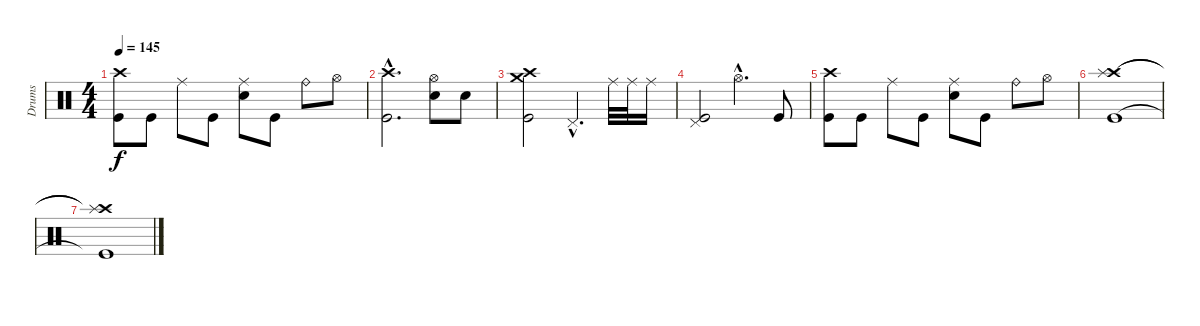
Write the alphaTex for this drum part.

\track ("Drums" "Drums") {instrument percussion}
\staff {score}
\articulation defaults
\ts (4 4)
\tempo 145
\clef neutral
\ks c
("Crash high (hit)" "Kick (hit)").8{dy f} "Kick (hit)".8 "Ride (middle)".8 "Kick (hit)".8 ("Ride (middle)" "Electric Snare (hit)").8 "Kick (hit)".8 "Ride (bell)".8 "Hi-Hat (open)".8 |
("Crash high (hit)"{hac} "Kick (hit)"{hac}).2{d} ("Hi-Hat (open)" "Electric Snare (hit)").8 "Electric Snare (hit)".8 |
("Crash high (hit)" "Crash medium (hit)" "Kick (hit)").2 "Pedal Hi-Hat (hit)"{hac}.4{d} "Ride (middle)".32 "Ride (middle)".32 "Ride (middle)".16 |
("Pedal Hi-Hat (hit)" "Kick (hit)").2 "Hi-Hat (open)"{hac}.4{d} "Kick (hit)".8 |
("Crash high (hit)" "Kick (hit)").8 "Kick (hit)".8 "Ride (middle)".8 "Kick (hit)".8 ("Ride (middle)" "Electric Snare (hit)").8 "Kick (hit)".8 "Ride (bell)".8 "Hi-Hat (open)".8 |
("Crash high (hit)" "Splash (hit)" "Kick (hit)").1 |
("Crash high (hit)"{t} "Splash (hit)"{t} "Kick (hit)"{t}).1
